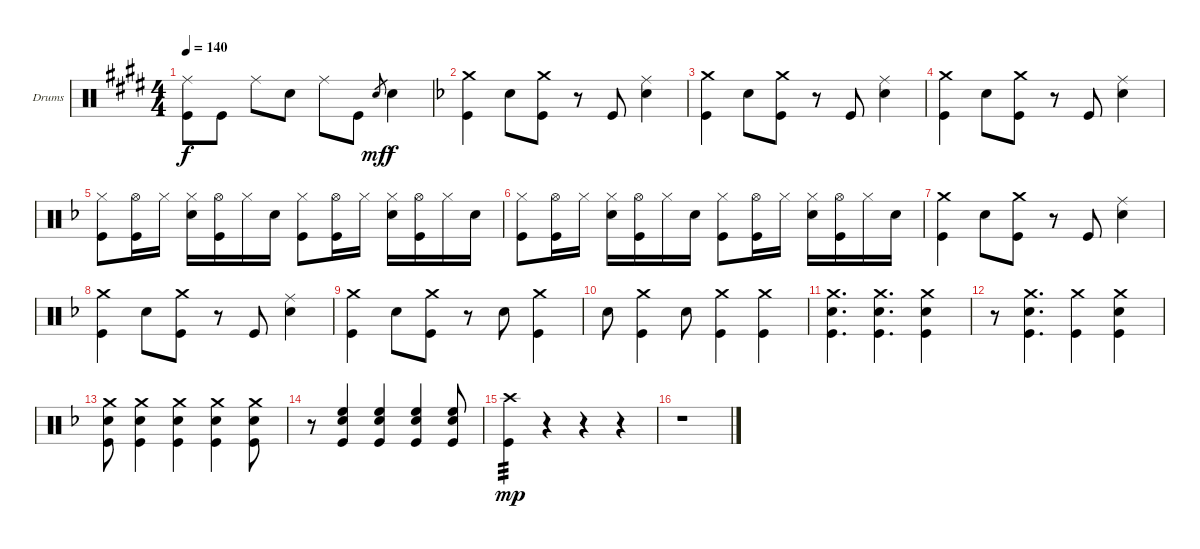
\bracketExtendMode groupsimilarinstruments
\firstSystemTrackNameOrientation horizontal
\otherSystemsTrackNameOrientation horizontal
\track ("Drumkit" "Drums") {instrument percussion}
\staff {score}
\articulation defaults
\ts (4 4)
\tempo 140
\clef neutral
\ks e
("Ride (middle)" "Kick (hit)").8{dy f} "Kick (hit)".8 "Ride (middle)".8 "Snare (hit) 2".8 "Ride (middle)".8 "Kick (hit)".8 "Snare (hit) 2".8{gr dy mf} "Snare (hit) 2".4{dy f} |
\ks f
("Crash medium (hit)" "Kick (hit)").4 "Snare (hit) 2".8 ("Crash medium (hit)" "Kick (hit)").8 r.8 "Kick (hit)".8 ("Ride (middle)" "Snare (hit) 2").4 |
("Crash medium (hit)" "Kick (hit)").4 "Snare (hit) 2".8 ("Crash medium (hit)" "Kick (hit)").8 r.8 "Kick (hit)".8 ("Ride (middle)" "Snare (hit) 2").4 |
("Crash medium (hit)" "Kick (hit)").4 "Snare (hit) 2".8 ("Crash medium (hit)" "Kick (hit)").8 r.8 "Kick (hit)".8 ("Ride (middle)" "Snare (hit) 2").4 |
("Hi-Hat (closed)" "Kick (hit)").8 ("Hi-Hat (open)" "Kick (hit)").16 "Hi-Hat (closed)".16 ("Hi-Hat (closed)" "Snare (hit) 2").16 ("Hi-Hat (open)" "Kick (hit)").16 "Hi-Hat (closed)".16 "Snare (hit) 2".16 ("Hi-Hat (closed)" "Kick (hit)").8 ("Hi-Hat (open)" "Kick (hit)").16 "Hi-Hat (closed)".16 ("Hi-Hat (closed)" "Snare (hit) 2").16 ("Hi-Hat (open)" "Kick (hit)").16 "Hi-Hat (closed)".16 "Snare (hit) 2".16 |
("Hi-Hat (closed)" "Kick (hit)").8 ("Hi-Hat (open)" "Kick (hit)").16 "Hi-Hat (closed)".16 ("Hi-Hat (closed)" "Snare (hit) 2").16 ("Hi-Hat (open)" "Kick (hit)").16 "Hi-Hat (closed)".16 "Snare (hit) 2".16 ("Hi-Hat (closed)" "Kick (hit)").8 ("Hi-Hat (open)" "Kick (hit)").16 "Hi-Hat (closed)".16 ("Hi-Hat (closed)" "Snare (hit) 2").16 ("Hi-Hat (open)" "Kick (hit)").16 "Hi-Hat (closed)".16 "Snare (hit) 2".16 |
("Crash medium (hit)" "Kick (hit)").4 "Snare (hit) 2".8 ("Crash medium (hit)" "Kick (hit)").8 r.8 "Kick (hit)".8 ("Ride (middle)" "Snare (hit) 2").4 |
("Crash medium (hit)" "Kick (hit)").4 "Snare (hit) 2".8 ("Crash medium (hit)" "Kick (hit)").8 r.8 "Kick (hit)".8 ("Ride (middle)" "Snare (hit) 2").4 |
("Crash medium (hit)" "Kick (hit)").4 "Snare (hit) 2".8 ("Crash medium (hit)" "Kick (hit)").8 r.8 "Snare (hit) 2".8 ("Crash medium (hit)" "Kick (hit)").4 |
"Snare (hit) 2".8 ("Crash medium (hit)" "Kick (hit)").4 "Snare (hit) 2".8 ("Crash medium (hit)" "Kick (hit)").4 ("Crash medium (hit)" "Kick (hit)").4 |
("Crash medium (hit)" "Snare (hit) 2" "Kick (hit)").4{d} ("Crash medium (hit)" "Snare (hit) 2" "Kick (hit)").4{d} ("Crash medium (hit)" "Snare (hit) 2" "Kick (hit)").4 |
r.8 ("Crash medium (hit)" "Snare (hit) 2" "Kick (hit)").4{d} ("Crash medium (hit)" "Kick (hit)").4 ("Crash medium (hit)" "Snare (hit) 2" "Kick (hit)").4 |
("Crash medium (hit)" "Snare (hit) 2" "Kick (hit)").8 ("Crash medium (hit)" "Snare (hit) 2" "Kick (hit)").4 ("Crash medium (hit)" "Snare (hit) 2" "Kick (hit)").4 ("Crash medium (hit)" "Snare (hit) 2" "Kick (hit)").4 ("Crash medium (hit)" "Snare (hit) 2" "Kick (hit)").8 |
r.8 ("High Floor Tom (hit)" "Snare (hit) 2" "Kick (hit)").4 ("High Floor Tom (hit)" "Snare (hit) 2" "Kick (hit)").4 ("High Floor Tom (hit)" "Snare (hit) 2" "Kick (hit)").4 ("High Floor Tom (hit)" "Snare (hit) 2" "Kick (hit)").8 |
("Crash high (hit)" "Kick (hit)").4{tp 3 dy mp} r.4 r.4 r.4 |
r.1
